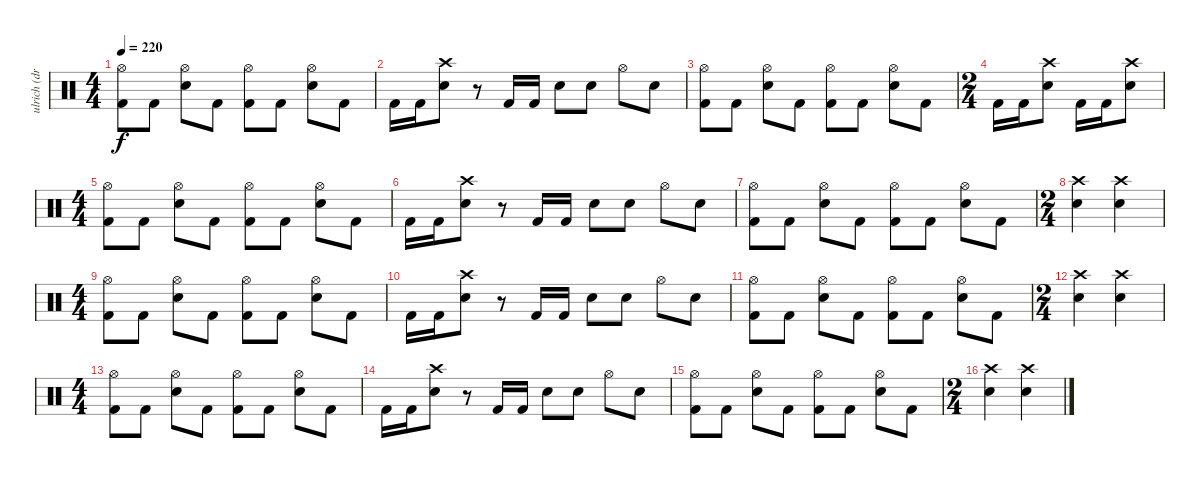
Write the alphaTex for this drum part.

\track ("ulrich (drums)" "ulrich (dr") {instrument percussion}
\staff {score}
\articulation defaults
\ts (4 4)
\tempo 220
\clef neutral
\ks c
("Hi-Hat (open)" "Kick (hit) 2").8{dy f} "Kick (hit) 2".8 ("Hi-Hat (open)" "Snare (hit) 2").8 "Kick (hit) 2".8 ("Hi-Hat (open)" "Kick (hit) 2").8 "Kick (hit) 2".8 ("Hi-Hat (open)" "Snare (hit) 2").8 "Kick (hit) 2".8 |
"Kick (hit) 2".16 "Kick (hit) 2".16 ("Crash high (hit)" "Snare (hit) 2").8 r.8 "Kick (hit) 2".16 "Kick (hit) 2".16 "Snare (hit) 2".8 "Snare (hit) 2".8 "Hi-Hat (open)".8 "Snare (hit) 2".8 |
("Hi-Hat (open)" "Kick (hit) 2").8 "Kick (hit) 2".8 ("Hi-Hat (open)" "Snare (hit) 2").8 "Kick (hit) 2".8 ("Hi-Hat (open)" "Kick (hit) 2").8 "Kick (hit) 2".8 ("Hi-Hat (open)" "Snare (hit) 2").8 "Kick (hit) 2".8 |
\ts (2 4)
"Kick (hit) 2".16 "Kick (hit) 2".16 ("Crash high (hit)" "Snare (hit) 2").8 "Kick (hit) 2".16 "Kick (hit) 2".16 ("Crash high (hit)" "Snare (hit) 2").8 |
\ts (4 4)
("Hi-Hat (open)" "Kick (hit) 2").8 "Kick (hit) 2".8 ("Hi-Hat (open)" "Snare (hit) 2").8 "Kick (hit) 2".8 ("Hi-Hat (open)" "Kick (hit) 2").8 "Kick (hit) 2".8 ("Hi-Hat (open)" "Snare (hit) 2").8 "Kick (hit) 2".8 |
"Kick (hit) 2".16 "Kick (hit) 2".16 ("Crash high (hit)" "Snare (hit) 2").8 r.8 "Kick (hit) 2".16 "Kick (hit) 2".16 "Snare (hit) 2".8 "Snare (hit) 2".8 "Hi-Hat (open)".8 "Snare (hit) 2".8 |
("Hi-Hat (open)" "Kick (hit) 2").8 "Kick (hit) 2".8 ("Hi-Hat (open)" "Snare (hit) 2").8 "Kick (hit) 2".8 ("Hi-Hat (open)" "Kick (hit) 2").8 "Kick (hit) 2".8 ("Hi-Hat (open)" "Snare (hit) 2").8 "Kick (hit) 2".8 |
\ts (2 4)
("Crash high (hit)" "Snare (hit) 2").4 ("Crash high (hit)" "Snare (hit) 2").4 |
\ts (4 4)
("Hi-Hat (open)" "Kick (hit) 2").8 "Kick (hit) 2".8 ("Hi-Hat (open)" "Snare (hit) 2").8 "Kick (hit) 2".8 ("Hi-Hat (open)" "Kick (hit) 2").8 "Kick (hit) 2".8 ("Hi-Hat (open)" "Snare (hit) 2").8 "Kick (hit) 2".8 |
"Kick (hit) 2".16 "Kick (hit) 2".16 ("Crash high (hit)" "Snare (hit) 2").8 r.8 "Kick (hit) 2".16 "Kick (hit) 2".16 "Snare (hit) 2".8 "Snare (hit) 2".8 "Hi-Hat (open)".8 "Snare (hit) 2".8 |
("Hi-Hat (open)" "Kick (hit) 2").8 "Kick (hit) 2".8 ("Hi-Hat (open)" "Snare (hit) 2").8 "Kick (hit) 2".8 ("Hi-Hat (open)" "Kick (hit) 2").8 "Kick (hit) 2".8 ("Hi-Hat (open)" "Snare (hit) 2").8 "Kick (hit) 2".8 |
\ts (2 4)
("Crash high (hit)" "Snare (hit) 2").4 ("Crash high (hit)" "Snare (hit) 2").4 |
\ts (4 4)
("Hi-Hat (open)" "Kick (hit) 2").8 "Kick (hit) 2".8 ("Hi-Hat (open)" "Snare (hit) 2").8 "Kick (hit) 2".8 ("Hi-Hat (open)" "Kick (hit) 2").8 "Kick (hit) 2".8 ("Hi-Hat (open)" "Snare (hit) 2").8 "Kick (hit) 2".8 |
"Kick (hit) 2".16 "Kick (hit) 2".16 ("Crash high (hit)" "Snare (hit) 2").8 r.8 "Kick (hit) 2".16 "Kick (hit) 2".16 "Snare (hit) 2".8 "Snare (hit) 2".8 "Hi-Hat (open)".8 "Snare (hit) 2".8 |
("Hi-Hat (open)" "Kick (hit) 2").8 "Kick (hit) 2".8 ("Hi-Hat (open)" "Snare (hit) 2").8 "Kick (hit) 2".8 ("Hi-Hat (open)" "Kick (hit) 2").8 "Kick (hit) 2".8 ("Hi-Hat (open)" "Snare (hit) 2").8 "Kick (hit) 2".8 |
\ts (2 4)
("Crash high (hit)" "Snare (hit) 2").4 ("Crash high (hit)" "Snare (hit) 2").4
